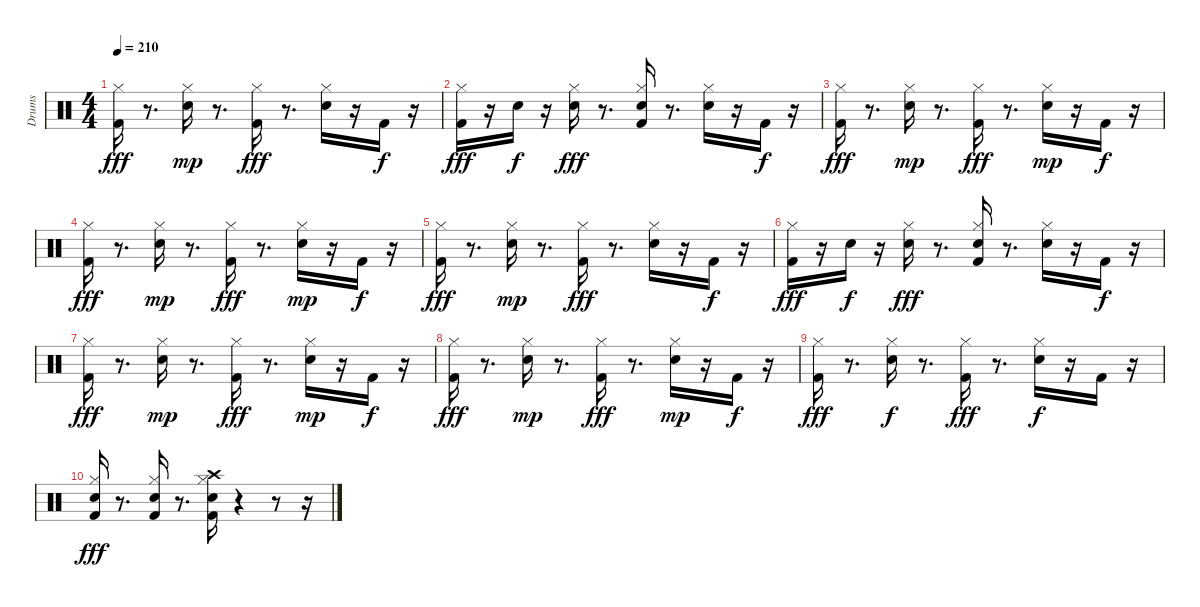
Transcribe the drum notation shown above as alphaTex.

\track ("Drums " "Drums ") {instrument percussion}
\staff {score}
\articulation defaults
\ts (4 4)
\tempo 210
\clef neutral
\ks c
("Kick (hit) 2" "Hi-Hat (closed)").16{dy fff} r.8{d} ("Snare (hit) 2" "Hi-Hat (closed)").16{dy mp} r.8{d} ("Kick (hit) 2" "Hi-Hat (closed)").16{dy fff} r.8{d} ("Snare (hit) 2" "Hi-Hat (closed)").16 r.16 "Kick (hit) 2".16{dy f} r.16 |
("Kick (hit) 2" "Hi-Hat (closed)").16{dy fff} r.16 "Snare (hit) 2".16{dy f} r.16 ("Snare (hit) 2" "Hi-Hat (closed)").16{dy fff} r.8{d} ("Kick (hit) 2" "Snare (hit) 2" "Hi-Hat (closed)").16 r.8{d} ("Snare (hit) 2" "Hi-Hat (closed)").16 r.16 "Kick (hit) 2".16{dy f} r.16 |
("Kick (hit) 2" "Hi-Hat (closed)").16{dy fff} r.8{d} ("Snare (hit) 2" "Hi-Hat (closed)").16{dy mp} r.8{d} ("Kick (hit) 2" "Hi-Hat (closed)").16{dy fff} r.8{d} ("Snare (hit) 2" "Hi-Hat (closed)").16{dy mp} r.16 "Kick (hit) 2".16{dy f} r.16 |
("Kick (hit) 2" "Hi-Hat (closed)").16{dy fff} r.8{d} ("Snare (hit) 2" "Hi-Hat (closed)").16{dy mp} r.8{d} ("Kick (hit) 2" "Hi-Hat (closed)").16{dy fff} r.8{d} ("Snare (hit) 2" "Hi-Hat (closed)").16{dy mp} r.16 "Kick (hit) 2".16{dy f} r.16 |
("Kick (hit) 2" "Hi-Hat (closed)").16{dy fff} r.8{d} ("Snare (hit) 2" "Hi-Hat (closed)").16{dy mp} r.8{d} ("Kick (hit) 2" "Hi-Hat (closed)").16{dy fff} r.8{d} ("Snare (hit) 2" "Hi-Hat (closed)").16 r.16 "Kick (hit) 2".16{dy f} r.16 |
("Kick (hit) 2" "Hi-Hat (closed)").16{dy fff} r.16 "Snare (hit) 2".16{dy f} r.16 ("Snare (hit) 2" "Hi-Hat (closed)").16{dy fff} r.8{d} ("Kick (hit) 2" "Snare (hit) 2" "Hi-Hat (closed)").16 r.8{d} ("Snare (hit) 2" "Hi-Hat (closed)").16 r.16 "Kick (hit) 2".16{dy f} r.16 |
("Kick (hit) 2" "Hi-Hat (closed)").16{dy fff} r.8{d} ("Snare (hit) 2" "Hi-Hat (closed)").16{dy mp} r.8{d} ("Kick (hit) 2" "Hi-Hat (closed)").16{dy fff} r.8{d} ("Snare (hit) 2" "Hi-Hat (closed)").16{dy mp} r.16 "Kick (hit) 2".16{dy f} r.16 |
("Kick (hit) 2" "Hi-Hat (closed)").16{dy fff} r.8{d} ("Snare (hit) 2" "Hi-Hat (closed)").16{dy mp} r.8{d} ("Kick (hit) 2" "Hi-Hat (closed)").16{dy fff} r.8{d} ("Snare (hit) 2" "Hi-Hat (closed)").16{dy mp} r.16 "Kick (hit) 2".16{dy f} r.16 |
("Kick (hit) 2" "Hi-Hat (closed)").16{dy fff} r.8{d} ("Snare (hit) 2" "Hi-Hat (closed)").16{dy f} r.8{d} ("Kick (hit) 2" "Hi-Hat (closed)").16{dy fff} r.8{d} ("Snare (hit) 2" "Hi-Hat (closed)").16{dy f} r.16 "Kick (hit) 2".16 r.16 |
("Kick (hit) 2" "Snare (hit) 2" "Hi-Hat (closed)").16{dy fff} r.8{d} ("Kick (hit) 2" "Snare (hit) 2" "Hi-Hat (closed)").16 r.8{d} ("Kick (hit) 2" "Snare (hit) 2" "Hi-Hat (closed)" "Crash high (hit)").16 r.4 r.8 r.16
